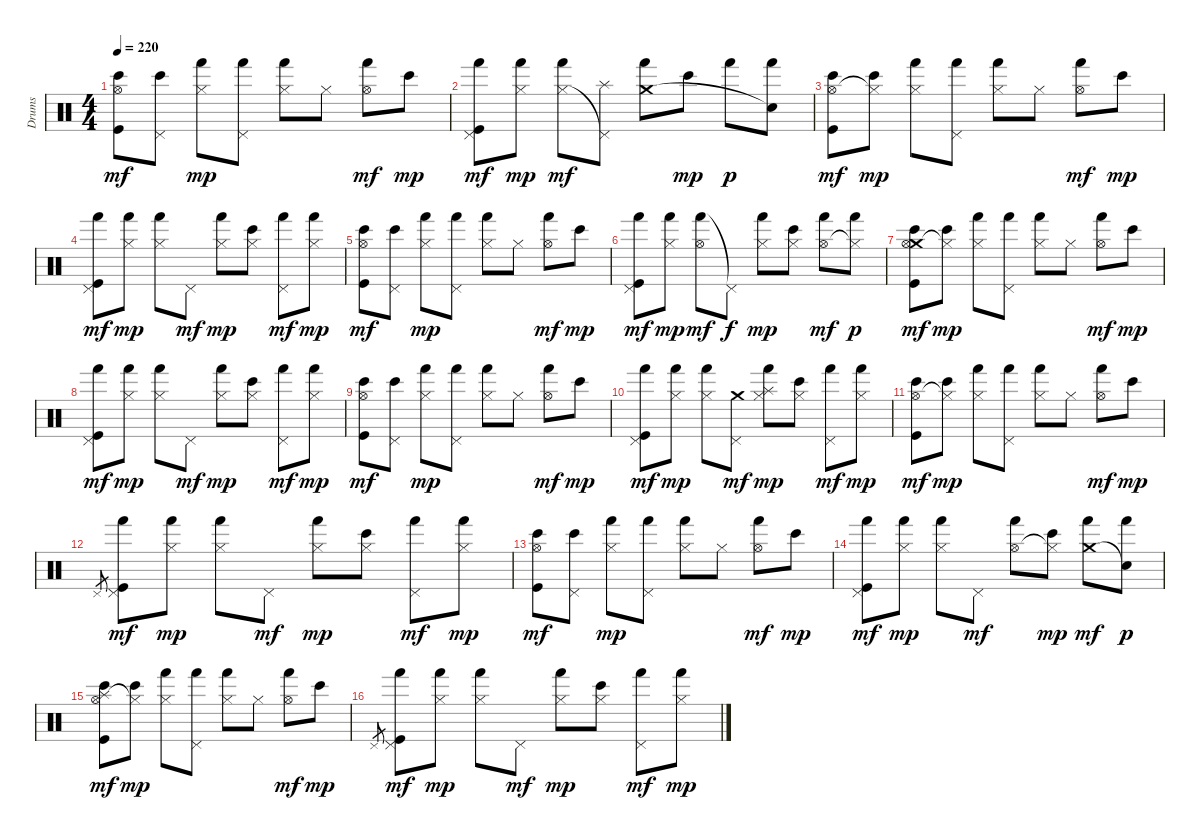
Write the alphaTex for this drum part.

\track ("Drums" "Drums") {instrument percussion}
\staff {score}
\articulation defaults
\ts (4 4)
\tempo 220
\clef neutral
\ks c
("Bongo High (hit)" "Hi-Hat (open)" "Kick (hit)").8{dy mf} ("Bongo High (hit)" "Pedal Hi-Hat (hit)").8 ("Hand (hit)" "Hi-Hat (closed)").8{dy mp} ("Hand (hit)" "Pedal Hi-Hat (hit)").8 ("Hand (hit)" "Hi-Hat (closed)").8 "Hi-Hat (closed)".8 ("Hand (hit)" "Hi-Hat (open)").8{dy mf} "Bongo High (hit)".8{dy mp} |
("Hand (hit)" "Pedal Hi-Hat (hit)" "Kick (hit)").8{dy mf} ("Hand (hit)" "Hi-Hat (closed)").8{dy mp} ("Hand (hit)" "Hi-Hat (closed)").8{dy mf} ("Splash (hit)" "Pedal Hi-Hat (hit)"{t}).8 ("Hand (hit)" "Crash medium (hit)").8 "Bongo High (hit)".8{dy mp} "Hand (hit)".8{dy p} ("Hand (hit)" "Snare (hit)"{t}).8 |
("Bongo High (hit)" "Hi-Hat (open)" "Kick (hit)").8{dy mf} ("Bongo High (hit)" "Hi-Hat (closed)"{t}).8{dy mp} ("Hand (hit)" "Hi-Hat (closed)").8 ("Hand (hit)" "Pedal Hi-Hat (hit)").8 ("Hand (hit)" "Hi-Hat (closed)").8 "Hi-Hat (closed)".8 ("Hand (hit)" "Hi-Hat (open)").8{dy mf} "Bongo High (hit)".8{dy mp} |
("Hand (hit)" "Pedal Hi-Hat (hit)" "Kick (hit)").8{dy mf} ("Hand (hit)" "Hi-Hat (closed)").8{dy mp} ("Hand (hit)" "Hi-Hat (closed)").8 "Pedal Hi-Hat (hit)".8{dy mf} ("Hand (hit)" "Hi-Hat (closed)").8{dy mp} ("Bongo High (hit)" "Hi-Hat (closed)").8 ("Hand (hit)" "Pedal Hi-Hat (hit)").8{dy mf} ("Hand (hit)" "Hi-Hat (closed)").8{dy mp} |
("Bongo High (hit)" "Hi-Hat (open)" "Kick (hit)").8{dy mf} ("Bongo High (hit)" "Pedal Hi-Hat (hit)").8 ("Hand (hit)" "Hi-Hat (closed)").8{dy mp} ("Hand (hit)" "Pedal Hi-Hat (hit)").8 ("Hand (hit)" "Hi-Hat (closed)").8 "Hi-Hat (closed)".8 ("Hand (hit)" "Hi-Hat (open)").8{dy mf} "Bongo High (hit)".8{dy mp} |
("Hand (hit)" "Pedal Hi-Hat (hit)" "Kick (hit)").8{dy mf} ("Hand (hit)" "Hi-Hat (closed)").8{dy mp} ("Hand (hit)" "Hi-Hat (open)").8{dy mf} "Pedal Hi-Hat (hit)"{t}.8{dy f} ("Hand (hit)" "Hi-Hat (closed)").8{dy mp} ("Bongo High (hit)" "Hi-Hat (closed)").8 ("Hand (hit)" "Hi-Hat (open)").8{dy mf} ("Hand (hit)" "Hi-Hat (closed)"{t}).8{dy p} |
("Bongo High (hit)" "Crash medium (hit)" "Hi-Hat (open)" "Kick (hit)").8{dy mf} ("Bongo High (hit)" "Hi-Hat (closed)"{t}).8{dy mp} ("Hand (hit)" "Hi-Hat (closed)").8 ("Hand (hit)" "Pedal Hi-Hat (hit)").8 ("Hand (hit)" "Hi-Hat (closed)").8 "Hi-Hat (closed)".8 ("Hand (hit)" "Hi-Hat (open)").8{dy mf} "Bongo High (hit)".8{dy mp} |
("Hand (hit)" "Pedal Hi-Hat (hit)" "Kick (hit)").8{dy mf} ("Hand (hit)" "Hi-Hat (closed)").8{dy mp} ("Hand (hit)" "Hi-Hat (closed)").8 "Pedal Hi-Hat (hit)".8{dy mf} ("Hand (hit)" "Hi-Hat (closed)").8{dy mp} ("Bongo High (hit)" "Hi-Hat (closed)").8 ("Hand (hit)" "Pedal Hi-Hat (hit)").8{dy mf} ("Hand (hit)" "Hi-Hat (closed)").8{dy mp} |
("Bongo High (hit)" "Hi-Hat (open)" "Kick (hit)").8{dy mf} ("Bongo High (hit)" "Pedal Hi-Hat (hit)").8 ("Hand (hit)" "Hi-Hat (closed)").8{dy mp} ("Hand (hit)" "Pedal Hi-Hat (hit)").8 ("Hand (hit)" "Hi-Hat (closed)").8 "Hi-Hat (closed)".8 ("Hand (hit)" "Hi-Hat (open)").8{dy mf} "Bongo High (hit)".8{dy mp} |
("Hand (hit)" "Pedal Hi-Hat (hit)" "Kick (hit)").8{dy mf} ("Hand (hit)" "Hi-Hat (closed)").8{dy mp} ("Hand (hit)" "Hi-Hat (closed)").8 ("Crash medium (hit)" "Pedal Hi-Hat (hit)").8{dy mf} ("Hand (hit)" "Splash (hit)" "Hi-Hat (closed)").8{dy mp} ("Bongo High (hit)" "Hi-Hat (closed)").8 ("Hand (hit)" "Pedal Hi-Hat (hit)").8{dy mf} ("Hand (hit)" "Hi-Hat (closed)").8{dy mp} |
("Bongo High (hit)" "Hi-Hat (open)" "Kick (hit)").8{dy mf} ("Bongo High (hit)" "Hi-Hat (closed)"{t}).8{dy mp} ("Hand (hit)" "Hi-Hat (closed)").8 ("Hand (hit)" "Pedal Hi-Hat (hit)").8 ("Hand (hit)" "Hi-Hat (closed)").8 "Hi-Hat (closed)".8 ("Hand (hit)" "Hi-Hat (open)").8{dy mf} "Bongo High (hit)".8{dy mp} |
"Pedal Hi-Hat (hit)".8{gr} ("Hand (hit)" "Pedal Hi-Hat (hit)" "Kick (hit)").8{dy mf} ("Hand (hit)" "Hi-Hat (closed)").8{dy mp} ("Hand (hit)" "Hi-Hat (closed)").8 "Pedal Hi-Hat (hit)".8{dy mf} ("Hand (hit)" "Hi-Hat (closed)").8{dy mp} ("Bongo High (hit)" "Hi-Hat (closed)").8 ("Hand (hit)" "Pedal Hi-Hat (hit)").8{dy mf} ("Hand (hit)" "Hi-Hat (closed)").8{dy mp} |
("Bongo High (hit)" "Hi-Hat (open)" "Kick (hit)").8{dy mf} ("Bongo High (hit)" "Pedal Hi-Hat (hit)").8 ("Hand (hit)" "Hi-Hat (closed)").8{dy mp} ("Hand (hit)" "Pedal Hi-Hat (hit)").8 ("Hand (hit)" "Hi-Hat (closed)").8 "Hi-Hat (closed)".8 ("Hand (hit)" "Hi-Hat (open)").8{dy mf} "Bongo High (hit)".8{dy mp} |
("Hand (hit)" "Pedal Hi-Hat (hit)" "Kick (hit)").8{dy mf} ("Hand (hit)" "Hi-Hat (closed)").8{dy mp} ("Hand (hit)" "Hi-Hat (closed)").8 "Pedal Hi-Hat (hit)".8{dy mf} ("Hand (hit)" "Hi-Hat (open)").8 ("Bongo High (hit)" "Hi-Hat (closed)"{t}).8{dy mp} ("Hand (hit)" "Crash medium (hit)").8{dy mf} ("Hand (hit)" "Snare (hit)"{t}).8{dy p} |
("Bongo High (hit)" "Splash (hit)" "Hi-Hat (open)" "Kick (hit)").8{dy mf} ("Bongo High (hit)" "Hi-Hat (closed)"{t}).8{dy mp} ("Hand (hit)" "Hi-Hat (closed)").8 ("Hand (hit)" "Pedal Hi-Hat (hit)").8 ("Hand (hit)" "Hi-Hat (closed)").8 "Hi-Hat (closed)".8 ("Hand (hit)" "Hi-Hat (open)").8{dy mf} "Bongo High (hit)".8{dy mp} |
"Pedal Hi-Hat (hit)".8{gr} ("Hand (hit)" "Pedal Hi-Hat (hit)" "Kick (hit)").8{dy mf} ("Hand (hit)" "Hi-Hat (closed)").8{dy mp} ("Hand (hit)" "Hi-Hat (closed)").8 "Pedal Hi-Hat (hit)".8{dy mf} ("Hand (hit)" "Hi-Hat (closed)").8{dy mp} ("Bongo High (hit)" "Hi-Hat (closed)").8 ("Hand (hit)" "Pedal Hi-Hat (hit)").8{dy mf} ("Hand (hit)" "Hi-Hat (closed)").8{dy mp}
